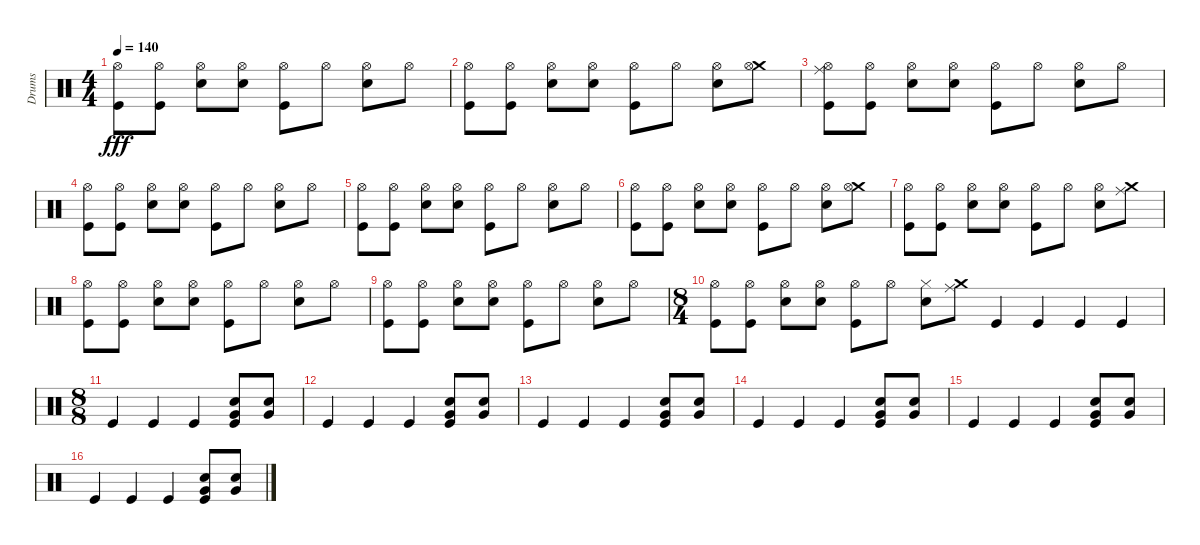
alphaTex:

\track ("Drums" "Drums") {instrument percussion}
\staff {score}
\articulation defaults
\ts (4 4)
\tempo 140
\clef neutral
\ks c
("Kick (hit)" "Hi-Hat (open)").8{dy fff} ("Kick (hit)" "Hi-Hat (open)").8 ("Snare (hit) 2" "Hi-Hat (open)").8 ("Snare (hit) 2" "Hi-Hat (open)").8 ("Kick (hit)" "Hi-Hat (open)").8 "Hi-Hat (open)".8 ("Snare (hit) 2" "Hi-Hat (open)").8 "Hi-Hat (open)".8 |
("Kick (hit)" "Hi-Hat (open)").8 ("Kick (hit)" "Hi-Hat (open)").8 ("Snare (hit) 2" "Hi-Hat (open)").8 ("Snare (hit) 2" "Hi-Hat (open)").8 ("Kick (hit)" "Hi-Hat (open)").8 "Hi-Hat (open)".8 ("Snare (hit) 2" "Hi-Hat (open)").8 ("Crash medium (hit)" "Hi-Hat (open)").8 |
("Ride (middle)" "Kick (hit)" "Hi-Hat (open)").8 ("Kick (hit)" "Hi-Hat (open)").8 ("Snare (hit) 2" "Hi-Hat (open)").8 ("Snare (hit) 2" "Hi-Hat (open)").8 ("Kick (hit)" "Hi-Hat (open)").8 "Hi-Hat (open)".8 ("Snare (hit) 2" "Hi-Hat (open)").8 "Hi-Hat (open)".8 |
("Kick (hit)" "Hi-Hat (open)").8 ("Kick (hit)" "Hi-Hat (open)").8 ("Snare (hit) 2" "Hi-Hat (open)").8 ("Snare (hit) 2" "Hi-Hat (open)").8 ("Kick (hit)" "Hi-Hat (open)").8 "Hi-Hat (open)".8 ("Snare (hit) 2" "Hi-Hat (open)").8 "Hi-Hat (open)".8 |
("Kick (hit)" "Hi-Hat (open)").8 ("Kick (hit)" "Hi-Hat (open)").8 ("Snare (hit) 2" "Hi-Hat (open)").8 ("Snare (hit) 2" "Hi-Hat (open)").8 ("Kick (hit)" "Hi-Hat (open)").8 "Hi-Hat (open)".8 ("Snare (hit) 2" "Hi-Hat (open)").8 "Hi-Hat (open)".8 |
("Kick (hit)" "Hi-Hat (open)").8 ("Kick (hit)" "Hi-Hat (open)").8 ("Snare (hit) 2" "Hi-Hat (open)").8 ("Snare (hit) 2" "Hi-Hat (open)").8 ("Kick (hit)" "Hi-Hat (open)").8 "Hi-Hat (open)".8 ("Snare (hit) 2" "Hi-Hat (open)").8 ("Crash medium (hit)" "Hi-Hat (open)").8 |
("Kick (hit)" "Hi-Hat (open)").8 ("Kick (hit)" "Hi-Hat (open)").8 ("Snare (hit) 2" "Hi-Hat (open)").8 ("Snare (hit) 2" "Hi-Hat (open)").8 ("Kick (hit)" "Hi-Hat (open)").8 "Hi-Hat (open)".8 ("Snare (hit) 2" "Hi-Hat (open)").8 ("Ride (middle)" "Crash medium (hit)").8 |
("Kick (hit)" "Hi-Hat (open)").8 ("Kick (hit)" "Hi-Hat (open)").8 ("Snare (hit) 2" "Hi-Hat (open)").8 ("Snare (hit) 2" "Hi-Hat (open)").8 ("Kick (hit)" "Hi-Hat (open)").8 "Hi-Hat (open)".8 ("Snare (hit) 2" "Hi-Hat (open)").8 "Hi-Hat (open)".8 |
("Kick (hit)" "Hi-Hat (open)").8 ("Kick (hit)" "Hi-Hat (open)").8 ("Snare (hit) 2" "Hi-Hat (open)").8 ("Snare (hit) 2" "Hi-Hat (open)").8 ("Kick (hit)" "Hi-Hat (open)").8 "Hi-Hat (open)".8 ("Snare (hit) 2" "Hi-Hat (open)").8 "Hi-Hat (open)".8 |
\ts (8 4)
("Kick (hit)" "Hi-Hat (open)").8 ("Kick (hit)" "Hi-Hat (open)").8 ("Snare (hit) 2" "Hi-Hat (open)").8 ("Snare (hit) 2" "Hi-Hat (open)").8 ("Kick (hit)" "Hi-Hat (open)").8 "Hi-Hat (open)".8 ("Snare (hit) 2" "Hi-Hat (closed)").8 ("Ride (middle)" "Crash medium (hit)").8 "Kick (hit)".4 "Kick (hit)".4 "Kick (hit)".4 "Kick (hit)".4 |
\ts (8 8)
"Kick (hit)".4 "Kick (hit)".4 "Kick (hit)".4 ("Snare (hit) 2" "Very Low Tom (hit)" "Kick (hit)").8 ("Snare (hit) 2" "Very Low Tom (hit)").8 |
"Kick (hit)".4 "Kick (hit)".4 "Kick (hit)".4 ("Snare (hit) 2" "Very Low Tom (hit)" "Kick (hit)").8 ("Snare (hit) 2" "Very Low Tom (hit)").8 |
"Kick (hit)".4 "Kick (hit)".4 "Kick (hit)".4 ("Snare (hit) 2" "Very Low Tom (hit)" "Kick (hit)").8 ("Snare (hit) 2" "Very Low Tom (hit)").8 |
"Kick (hit)".4 "Kick (hit)".4 "Kick (hit)".4 ("Snare (hit) 2" "Very Low Tom (hit)" "Kick (hit)").8 ("Snare (hit) 2" "Very Low Tom (hit)").8 |
"Kick (hit)".4 "Kick (hit)".4 "Kick (hit)".4 ("Snare (hit) 2" "Very Low Tom (hit)" "Kick (hit)").8 ("Snare (hit) 2" "Very Low Tom (hit)").8 |
"Kick (hit)".4 "Kick (hit)".4 "Kick (hit)".4 ("Snare (hit) 2" "Very Low Tom (hit)" "Kick (hit)").8 ("Snare (hit) 2" "Very Low Tom (hit)").8
